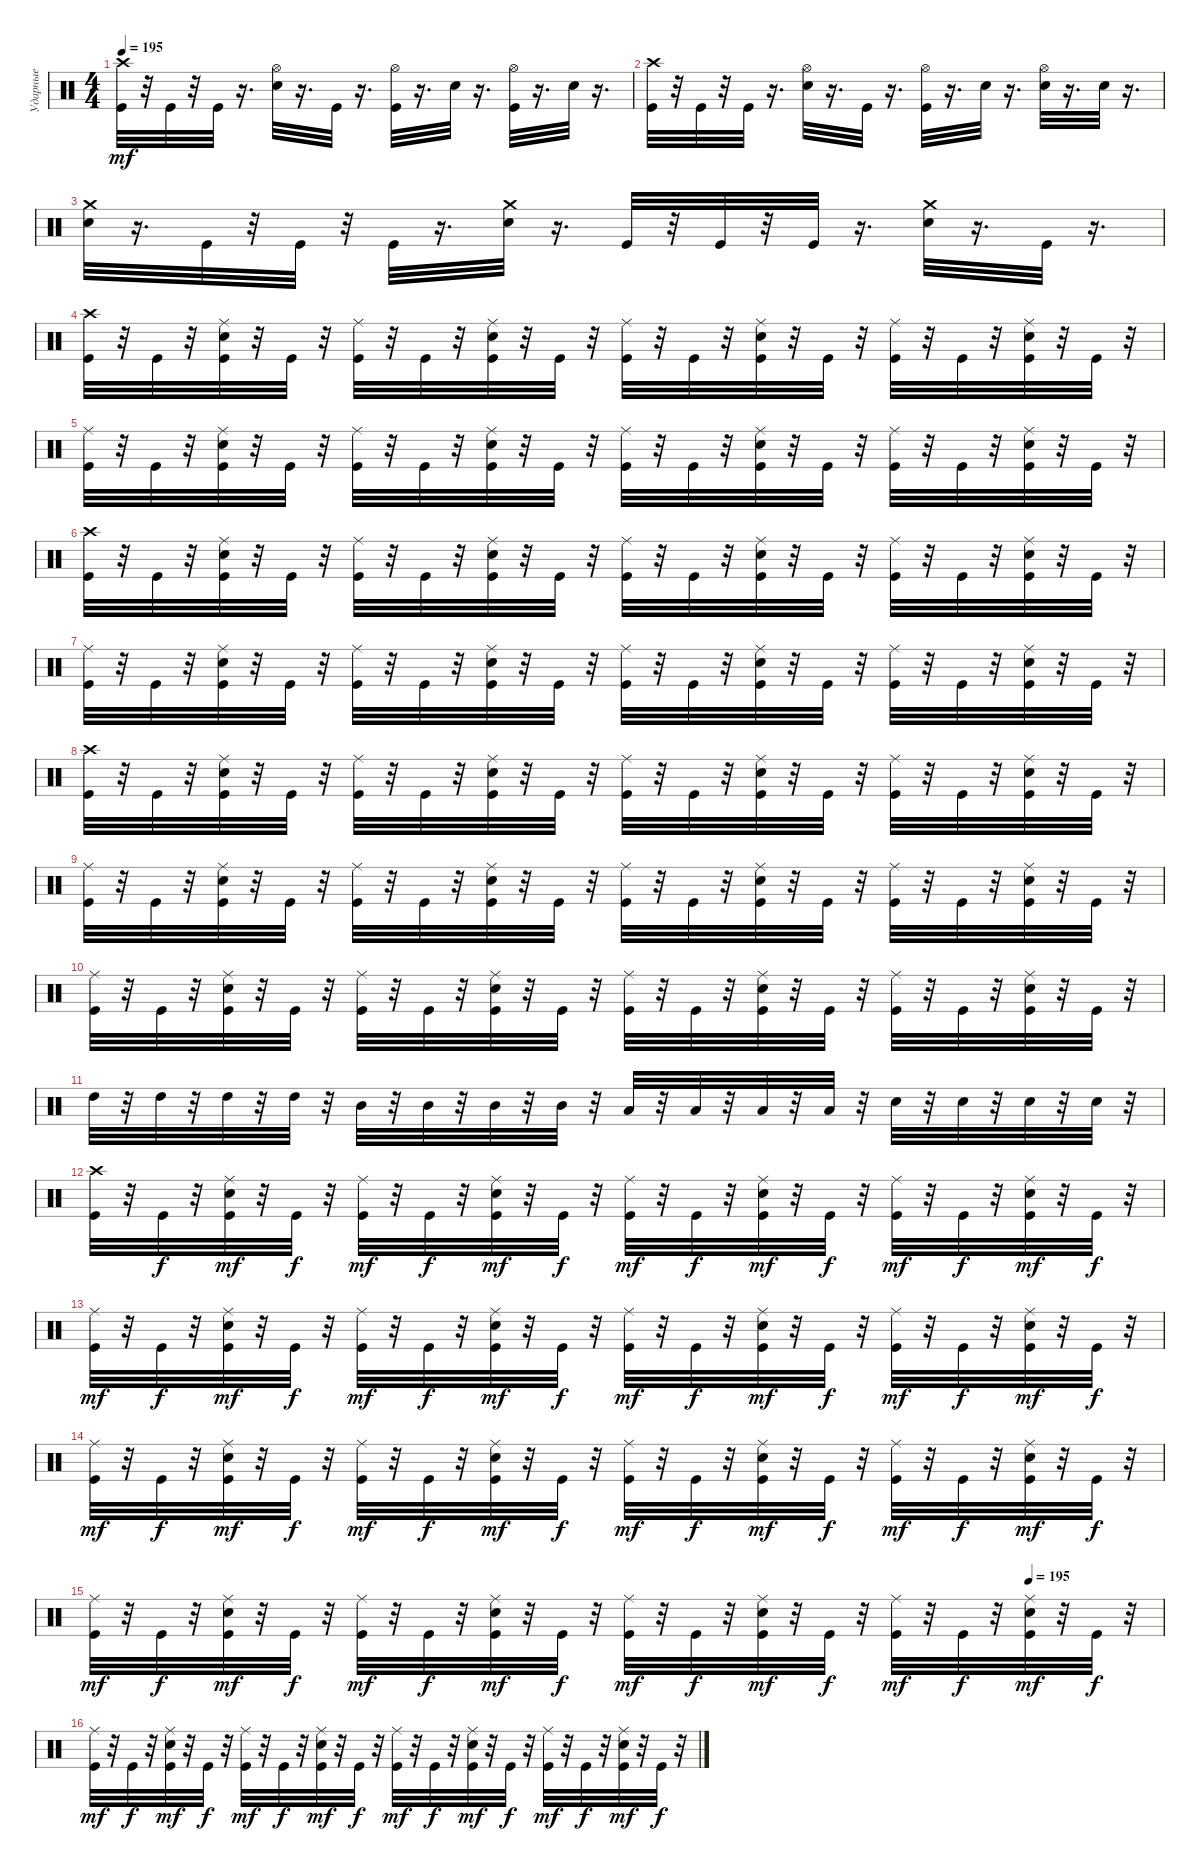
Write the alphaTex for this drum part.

\track ("Ударные" "Ударные") {instrument percussion}
\staff {score}
\articulation defaults
\ts (4 4)
\tempo 195
\clef neutral
\ks c
("Crash high (hit)" "Kick (hit)").32{dy mf} r.32 "Kick (hit)".32 r.32 "Kick (hit)".32 r.16{d} ("Electric Snare (hit)" "Hi-Hat (open)").32 r.16{d} "Kick (hit)".32 r.16{d} ("Kick (hit)" "Hi-Hat (open)").32 r.16{d} "Electric Snare (hit)".32 r.16{d} ("Kick (hit)" "Hi-Hat (open)").32 r.16{d} "Electric Snare (hit)".32 r.16{d} |
("Crash high (hit)" "Kick (hit)").32 r.32 "Kick (hit)".32 r.32 "Kick (hit)".32 r.16{d} ("Electric Snare (hit)" "Hi-Hat (open)").32 r.16{d} "Kick (hit)".32 r.16{d} ("Kick (hit)" "Hi-Hat (open)").32 r.16{d} "Electric Snare (hit)".32 r.16{d} ("Electric Snare (hit)" "Hi-Hat (open)").32 r.16{d} "Electric Snare (hit)".32 r.16{d} |
("Crash medium (hit)" "Electric Snare (hit)").32 r.16{d} "Kick (hit)".32 r.32 "Kick (hit)".32 r.32 "Kick (hit)".32 r.16{d} ("Crash medium (hit)" "Electric Snare (hit)").32 r.16{d} "Kick (hit)".32 r.32 "Kick (hit)".32 r.32 "Kick (hit)".32 r.16{d} ("Crash medium (hit)" "Electric Snare (hit)").32 r.16{d} "Kick (hit)".32 r.16{d} |
("Crash high (hit)" "Kick (hit)").32 r.32 "Kick (hit)".32 r.32 ("Electric Snare (hit)" "Kick (hit)" "Ride (middle)").32 r.32 "Kick (hit)".32 r.32 ("Ride (middle)" "Kick (hit)").32 r.32 "Kick (hit)".32 r.32 ("Ride (middle)" "Electric Snare (hit)" "Kick (hit)").32 r.32 "Kick (hit)".32 r.32 ("Ride (middle)" "Kick (hit)").32 r.32 "Kick (hit)".32 r.32 ("Ride (middle)" "Kick (hit)" "Electric Snare (hit)").32 r.32 "Kick (hit)".32 r.32 ("Ride (middle)" "Kick (hit)").32 r.32 "Kick (hit)".32 r.32 ("Ride (middle)" "Electric Snare (hit)" "Kick (hit)").32 r.32 "Kick (hit)".32 r.32 |
("Ride (middle)" "Kick (hit)").32 r.32 "Kick (hit)".32 r.32 ("Electric Snare (hit)" "Kick (hit)" "Ride (middle)").32 r.32 "Kick (hit)".32 r.32 ("Ride (middle)" "Kick (hit)").32 r.32 "Kick (hit)".32 r.32 ("Ride (middle)" "Electric Snare (hit)" "Kick (hit)").32 r.32 "Kick (hit)".32 r.32 ("Ride (middle)" "Kick (hit)").32 r.32 "Kick (hit)".32 r.32 ("Ride (middle)" "Kick (hit)" "Electric Snare (hit)").32 r.32 "Kick (hit)".32 r.32 ("Ride (middle)" "Kick (hit)").32 r.32 "Kick (hit)".32 r.32 ("Ride (middle)" "Electric Snare (hit)" "Kick (hit)").32 r.32 "Kick (hit)".32 r.32 |
("Crash high (hit)" "Kick (hit)").32 r.32 "Kick (hit)".32 r.32 ("Electric Snare (hit)" "Kick (hit)" "Ride (middle)").32 r.32 "Kick (hit)".32 r.32 ("Ride (middle)" "Kick (hit)").32 r.32 "Kick (hit)".32 r.32 ("Ride (middle)" "Electric Snare (hit)" "Kick (hit)").32 r.32 "Kick (hit)".32 r.32 ("Ride (middle)" "Kick (hit)").32 r.32 "Kick (hit)".32 r.32 ("Ride (middle)" "Kick (hit)" "Electric Snare (hit)").32 r.32 "Kick (hit)".32 r.32 ("Ride (middle)" "Kick (hit)").32 r.32 "Kick (hit)".32 r.32 ("Ride (middle)" "Electric Snare (hit)" "Kick (hit)").32 r.32 "Kick (hit)".32 r.32 |
("Ride (middle)" "Kick (hit)").32 r.32 "Kick (hit)".32 r.32 ("Electric Snare (hit)" "Kick (hit)" "Ride (middle)").32 r.32 "Kick (hit)".32 r.32 ("Ride (middle)" "Kick (hit)").32 r.32 "Kick (hit)".32 r.32 ("Ride (middle)" "Electric Snare (hit)" "Kick (hit)").32 r.32 "Kick (hit)".32 r.32 ("Ride (middle)" "Kick (hit)").32 r.32 "Kick (hit)".32 r.32 ("Ride (middle)" "Kick (hit)" "Electric Snare (hit)").32 r.32 "Kick (hit)".32 r.32 ("Ride (middle)" "Kick (hit)").32 r.32 "Kick (hit)".32 r.32 ("Ride (middle)" "Electric Snare (hit)" "Kick (hit)").32 r.32 "Kick (hit)".32 r.32 |
("Crash high (hit)" "Kick (hit)").32 r.32 "Kick (hit)".32 r.32 ("Electric Snare (hit)" "Kick (hit)" "Ride (middle)").32 r.32 "Kick (hit)".32 r.32 ("Ride (middle)" "Kick (hit)").32 r.32 "Kick (hit)".32 r.32 ("Ride (middle)" "Electric Snare (hit)" "Kick (hit)").32 r.32 "Kick (hit)".32 r.32 ("Ride (middle)" "Kick (hit)").32 r.32 "Kick (hit)".32 r.32 ("Ride (middle)" "Kick (hit)" "Electric Snare (hit)").32 r.32 "Kick (hit)".32 r.32 ("Ride (middle)" "Kick (hit)").32 r.32 "Kick (hit)".32 r.32 ("Ride (middle)" "Electric Snare (hit)" "Kick (hit)").32 r.32 "Kick (hit)".32 r.32 |
("Ride (middle)" "Kick (hit)").32 r.32 "Kick (hit)".32 r.32 ("Electric Snare (hit)" "Kick (hit)" "Ride (middle)").32 r.32 "Kick (hit)".32 r.32 ("Ride (middle)" "Kick (hit)").32 r.32 "Kick (hit)".32 r.32 ("Ride (middle)" "Electric Snare (hit)" "Kick (hit)").32 r.32 "Kick (hit)".32 r.32 ("Ride (middle)" "Kick (hit)").32 r.32 "Kick (hit)".32 r.32 ("Ride (middle)" "Kick (hit)" "Electric Snare (hit)").32 r.32 "Kick (hit)".32 r.32 ("Ride (middle)" "Kick (hit)").32 r.32 "Kick (hit)".32 r.32 ("Ride (middle)" "Electric Snare (hit)" "Kick (hit)").32 r.32 "Kick (hit)".32 r.32 |
("Ride (middle)" "Kick (hit)").32 r.32 "Kick (hit)".32 r.32 ("Electric Snare (hit)" "Kick (hit)" "Ride (middle)").32 r.32 "Kick (hit)".32 r.32 ("Ride (middle)" "Kick (hit)").32 r.32 "Kick (hit)".32 r.32 ("Ride (middle)" "Electric Snare (hit)" "Kick (hit)").32 r.32 "Kick (hit)".32 r.32 ("Ride (middle)" "Kick (hit)").32 r.32 "Kick (hit)".32 r.32 ("Ride (middle)" "Kick (hit)" "Electric Snare (hit)").32 r.32 "Kick (hit)".32 r.32 ("Ride (middle)" "Kick (hit)").32 r.32 "Kick (hit)".32 r.32 ("Ride (middle)" "Electric Snare (hit)" "Kick (hit)").32 r.32 "Kick (hit)".32 r.32 |
"High Tom (hit)".32 r.32 "High Tom (hit)".32 r.32 "High Tom (hit)".32 r.32 "High Tom (hit)".32 r.32 "Mid Tom (hit)".32 r.32 "Mid Tom (hit)".32 r.32 "Mid Tom (hit)".32 r.32 "Mid Tom (hit)".32 r.32 "Low Tom (hit)".32 r.32 "Low Tom (hit)".32 r.32 "Low Tom (hit)".32 r.32 "Low Tom (hit)".32 r.32 "Electric Snare (hit)".32 r.32 "Electric Snare (hit)".32 r.32 "Electric Snare (hit)".32 r.32 "Electric Snare (hit)".32 r.32 |
("Crash high (hit)" "Kick (hit)").32 r.32 "Kick (hit)".32{dy f} r.32 ("Electric Snare (hit)" "Ride (middle)" "Kick (hit)").32{dy mf} r.32 "Kick (hit)".32{dy f} r.32 ("Ride (middle)" "Kick (hit)").32{dy mf} r.32 "Kick (hit)".32{dy f} r.32 ("Ride (middle)" "Kick (hit)" "Electric Snare (hit)").32{dy mf} r.32 "Kick (hit)".32{dy f} r.32 ("Ride (middle)" "Kick (hit)").32{dy mf} r.32 "Kick (hit)".32{dy f} r.32 ("Ride (middle)" "Kick (hit)" "Electric Snare (hit)").32{dy mf} r.32 "Kick (hit)".32{dy f} r.32 ("Ride (middle)" "Kick (hit)").32{dy mf} r.32 "Kick (hit)".32{dy f} r.32 ("Electric Snare (hit)" "Ride (middle)" "Kick (hit)").32{dy mf} r.32 "Kick (hit)".32{dy f} r.32 |
("Ride (middle)" "Kick (hit)").32{dy mf} r.32 "Kick (hit)".32{dy f} r.32 ("Electric Snare (hit)" "Ride (middle)" "Kick (hit)").32{dy mf} r.32 "Kick (hit)".32{dy f} r.32 ("Ride (middle)" "Kick (hit)").32{dy mf} r.32 "Kick (hit)".32{dy f} r.32 ("Ride (middle)" "Kick (hit)" "Electric Snare (hit)").32{dy mf} r.32 "Kick (hit)".32{dy f} r.32 ("Ride (middle)" "Kick (hit)").32{dy mf} r.32 "Kick (hit)".32{dy f} r.32 ("Ride (middle)" "Kick (hit)" "Electric Snare (hit)").32{dy mf} r.32 "Kick (hit)".32{dy f} r.32 ("Ride (middle)" "Kick (hit)").32{dy mf} r.32 "Kick (hit)".32{dy f} r.32 ("Electric Snare (hit)" "Ride (middle)" "Kick (hit)").32{dy mf} r.32 "Kick (hit)".32{dy f} r.32 |
("Ride (middle)" "Kick (hit)").32{dy mf} r.32 "Kick (hit)".32{dy f} r.32 ("Electric Snare (hit)" "Ride (middle)" "Kick (hit)").32{dy mf} r.32 "Kick (hit)".32{dy f} r.32 ("Ride (middle)" "Kick (hit)").32{dy mf} r.32 "Kick (hit)".32{dy f} r.32 ("Ride (middle)" "Kick (hit)" "Electric Snare (hit)").32{dy mf} r.32 "Kick (hit)".32{dy f} r.32 ("Ride (middle)" "Kick (hit)").32{dy mf} r.32 "Kick (hit)".32{dy f} r.32 ("Ride (middle)" "Kick (hit)" "Electric Snare (hit)").32{dy mf} r.32 "Kick (hit)".32{dy f} r.32 ("Ride (middle)" "Kick (hit)").32{dy mf} r.32 "Kick (hit)".32{dy f} r.32 ("Electric Snare (hit)" "Ride (middle)" "Kick (hit)").32{dy mf} r.32 "Kick (hit)".32{dy f} r.32 |
\tempo (195 0.875)
("Ride (middle)" "Kick (hit)").32{dy mf} r.32 "Kick (hit)".32{dy f} r.32 ("Electric Snare (hit)" "Ride (middle)" "Kick (hit)").32{dy mf} r.32 "Kick (hit)".32{dy f} r.32 ("Ride (middle)" "Kick (hit)").32{dy mf} r.32 "Kick (hit)".32{dy f} r.32 ("Ride (middle)" "Kick (hit)" "Electric Snare (hit)").32{dy mf} r.32 "Kick (hit)".32{dy f} r.32 ("Ride (middle)" "Kick (hit)").32{dy mf} r.32 "Kick (hit)".32{dy f} r.32 ("Ride (middle)" "Kick (hit)" "Electric Snare (hit)").32{dy mf} r.32 "Kick (hit)".32{dy f} r.32 ("Ride (middle)" "Kick (hit)").32{dy mf} r.32 "Kick (hit)".32{dy f} r.32 ("Electric Snare (hit)" "Ride (middle)" "Kick (hit)").32{dy mf} r.32 "Kick (hit)".32{dy f} r.32 |
("Ride (middle)" "Kick (hit)").32{dy mf} r.32 "Kick (hit)".32{dy f} r.32 ("Electric Snare (hit)" "Ride (middle)" "Kick (hit)").32{dy mf} r.32 "Kick (hit)".32{dy f} r.32 ("Ride (middle)" "Kick (hit)").32{dy mf} r.32 "Kick (hit)".32{dy f} r.32 ("Ride (middle)" "Kick (hit)" "Electric Snare (hit)").32{dy mf} r.32 "Kick (hit)".32{dy f} r.32 ("Ride (middle)" "Kick (hit)").32{dy mf} r.32 "Kick (hit)".32{dy f} r.32 ("Ride (middle)" "Kick (hit)" "Electric Snare (hit)").32{dy mf} r.32 "Kick (hit)".32{dy f} r.32 ("Ride (middle)" "Kick (hit)").32{dy mf} r.32 "Kick (hit)".32{dy f} r.32 ("Electric Snare (hit)" "Ride (middle)" "Kick (hit)").32{dy mf} r.32 "Kick (hit)".32{dy f} r.32
